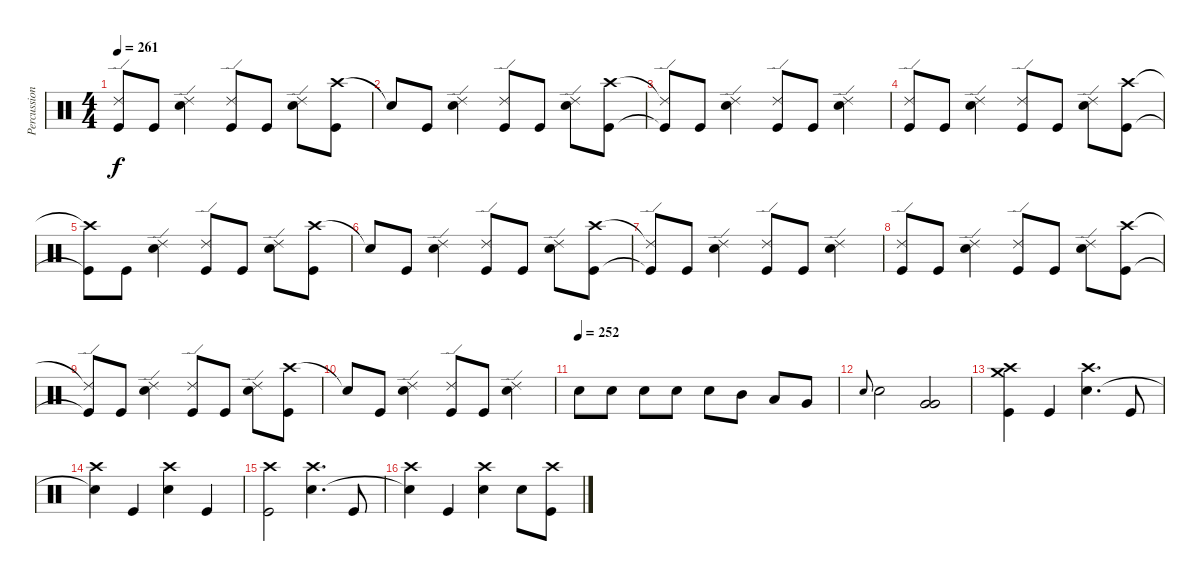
\track ("Percussion" "Percussion") {instrument percussion}
\staff {score}
\articulation defaults
\ts (4 4)
\tempo 261
\clef neutral
\ks c
("Ride (edge) 2"{t} "Kick (hit)"{t}).8{dy f} "Kick (hit)".8 ("Ride (edge) 2" "Electric Snare (hit)").4 ("Ride (edge) 2" "Kick (hit)").8 "Kick (hit)".8 ("Ride (edge) 2" "Electric Snare (hit)").8 ("Crash high (hit)" "Kick (hit)").8 |
"Snare (hit)"{t}.8 "Kick (hit)".8 ("Ride (edge) 2" "Electric Snare (hit)").4 ("Ride (edge) 2" "Kick (hit)").8 "Kick (hit)".8 ("Ride (edge) 2" "Electric Snare (hit)").8 ("Crash high (hit)" "Kick (hit)").8 |
("Ride (edge) 2"{t} "Kick (hit)"{t}).8 "Kick (hit)".8 ("Ride (edge) 2" "Electric Snare (hit)").4 ("Ride (edge) 2" "Kick (hit)").8 "Kick (hit)".8 ("Ride (edge) 2" "Electric Snare (hit)").4 |
("Ride (edge) 2" "Kick (hit)").8 "Kick (hit)".8 ("Ride (edge) 2" "Electric Snare (hit)").4 ("Ride (edge) 2" "Kick (hit)").8 "Kick (hit)".8 ("Ride (edge) 2" "Electric Snare (hit)").8 ("Crash high (hit)" "Kick (hit)").8 |
("Crash high (hit)"{t} "Kick (hit)"{t}).8 "Kick (hit)".8 ("Ride (edge) 2" "Electric Snare (hit)").4 ("Ride (edge) 2" "Kick (hit)").8 "Kick (hit)".8 ("Ride (edge) 2" "Electric Snare (hit)").8 ("Crash high (hit)" "Kick (hit)").8 |
"Snare (hit)"{t}.8 "Kick (hit)".8 ("Ride (edge) 2" "Electric Snare (hit)").4 ("Ride (edge) 2" "Kick (hit)").8 "Kick (hit)".8 ("Ride (edge) 2" "Electric Snare (hit)").8 ("Crash high (hit)" "Kick (hit)").8 |
("Ride (edge) 2"{t} "Kick (hit)"{t}).8 "Kick (hit)".8 ("Ride (edge) 2" "Electric Snare (hit)").4 ("Ride (edge) 2" "Kick (hit)").8 "Kick (hit)".8 ("Ride (edge) 2" "Electric Snare (hit)").4 |
("Ride (edge) 2" "Kick (hit)").8 "Kick (hit)".8 ("Ride (edge) 2" "Electric Snare (hit)").4 ("Ride (edge) 2" "Kick (hit)").8 "Kick (hit)".8 ("Ride (edge) 2" "Electric Snare (hit)").8 ("Crash high (hit)" "Kick (hit)").8 |
("Ride (edge) 2"{t} "Kick (hit)"{t}).8 "Kick (hit)".8 ("Ride (edge) 2" "Electric Snare (hit)").4 ("Ride (edge) 2" "Kick (hit)").8 "Kick (hit)".8 ("Ride (edge) 2" "Electric Snare (hit)").8 ("Crash high (hit)" "Kick (hit)").8 |
"Snare (hit)"{t}.8 "Kick (hit)".8 ("Ride (edge) 2" "Electric Snare (hit)").4 ("Ride (edge) 2" "Kick (hit)").8 "Kick (hit)".8 ("Ride (edge) 2" "Electric Snare (hit)").4 |
\tempo (252)
"Electric Snare (hit)".8 "Electric Snare (hit)".8 "Electric Snare (hit)".8 "Electric Snare (hit)".8 "Electric Snare (hit)".8 "Mid Tom (hit)".8 "Low Tom (hit)".8 "Very Low Tom (hit)".8 |
"Electric Snare (hit)".8{gr onbeat} "Electric Snare (hit)".2 ("Very Low Tom (hit)" "Very Low Tom (hit)").2 |
("Crash high (hit)" "Crash medium (hit)" "Kick (hit)").4 "Kick (hit)".4 ("Crash high (hit)" "Electric Snare (hit)").4{d} "Kick (hit)".8 |
("Crash high (hit)" "Snare (hit)"{t}).4 "Kick (hit)".4 ("Crash high (hit)" "Electric Snare (hit)").4 "Kick (hit)".4 |
("Crash high (hit)" "Kick (hit)").2 ("Crash high (hit)" "Electric Snare (hit)").4{d} "Kick (hit)".8 |
("Crash high (hit)" "Snare (hit)"{t}).4 "Kick (hit)".4 ("Crash high (hit)" "Electric Snare (hit)").4 "Electric Snare (hit)".8 ("Crash high (hit)" "Kick (hit)").8
